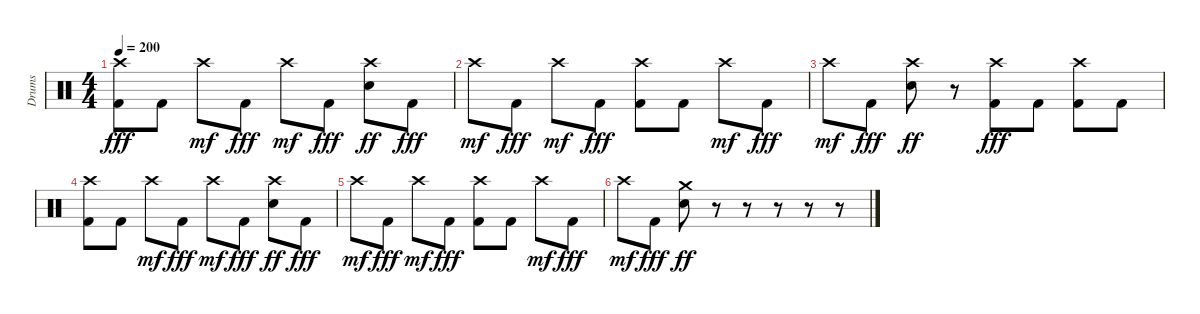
\track ("Drums" "Drums") {instrument percussion}
\staff {score}
\articulation defaults
\ts (4 4)
\tempo 200
\clef neutral
\ks c
("Crash high (hit)" "Kick (hit) 2").8{dy fff} "Kick (hit) 2".8 "Crash high (hit)".8{dy mf} "Kick (hit) 2".8{dy fff} "Crash high (hit)".8{dy mf} "Kick (hit) 2".8{dy fff} ("Crash high (hit)" "Electric Snare (hit)").8{dy ff} "Kick (hit) 2".8{dy fff} |
"Crash high (hit)".8{dy mf} "Kick (hit) 2".8{dy fff} "Crash high (hit)".8{dy mf} "Kick (hit) 2".8{dy fff} ("Crash high (hit)" "Kick (hit) 2").8 "Kick (hit) 2".8 "Crash high (hit)".8{dy mf} "Kick (hit) 2".8{dy fff} |
"Crash high (hit)".8{dy mf} "Kick (hit) 2".8{dy fff} ("Crash high (hit)" "Electric Snare (hit)").8{dy ff} r.8 ("Crash high (hit)" "Kick (hit) 2").8{dy fff} "Kick (hit) 2".8 ("Crash high (hit)" "Kick (hit) 2").8 "Kick (hit) 2".8 |
("Crash high (hit)" "Kick (hit) 2").8 "Kick (hit) 2".8 "Crash high (hit)".8{dy mf} "Kick (hit) 2".8{dy fff} "Crash high (hit)".8{dy mf} "Kick (hit) 2".8{dy fff} ("Crash high (hit)" "Electric Snare (hit)").8{dy ff} "Kick (hit) 2".8{dy fff} |
"Crash high (hit)".8{dy mf} "Kick (hit) 2".8{dy fff} "Crash high (hit)".8{dy mf} "Kick (hit) 2".8{dy fff} ("Crash high (hit)" "Kick (hit) 2").8 "Kick (hit) 2".8 "Crash high (hit)".8{dy mf} "Kick (hit) 2".8{dy fff} |
"Crash high (hit)".8{dy mf} "Kick (hit) 2".8{dy fff} ("Crash medium (hit)" "Electric Snare (hit)").8{dy ff} r.8 r.8 r.8 r.8 r.8
